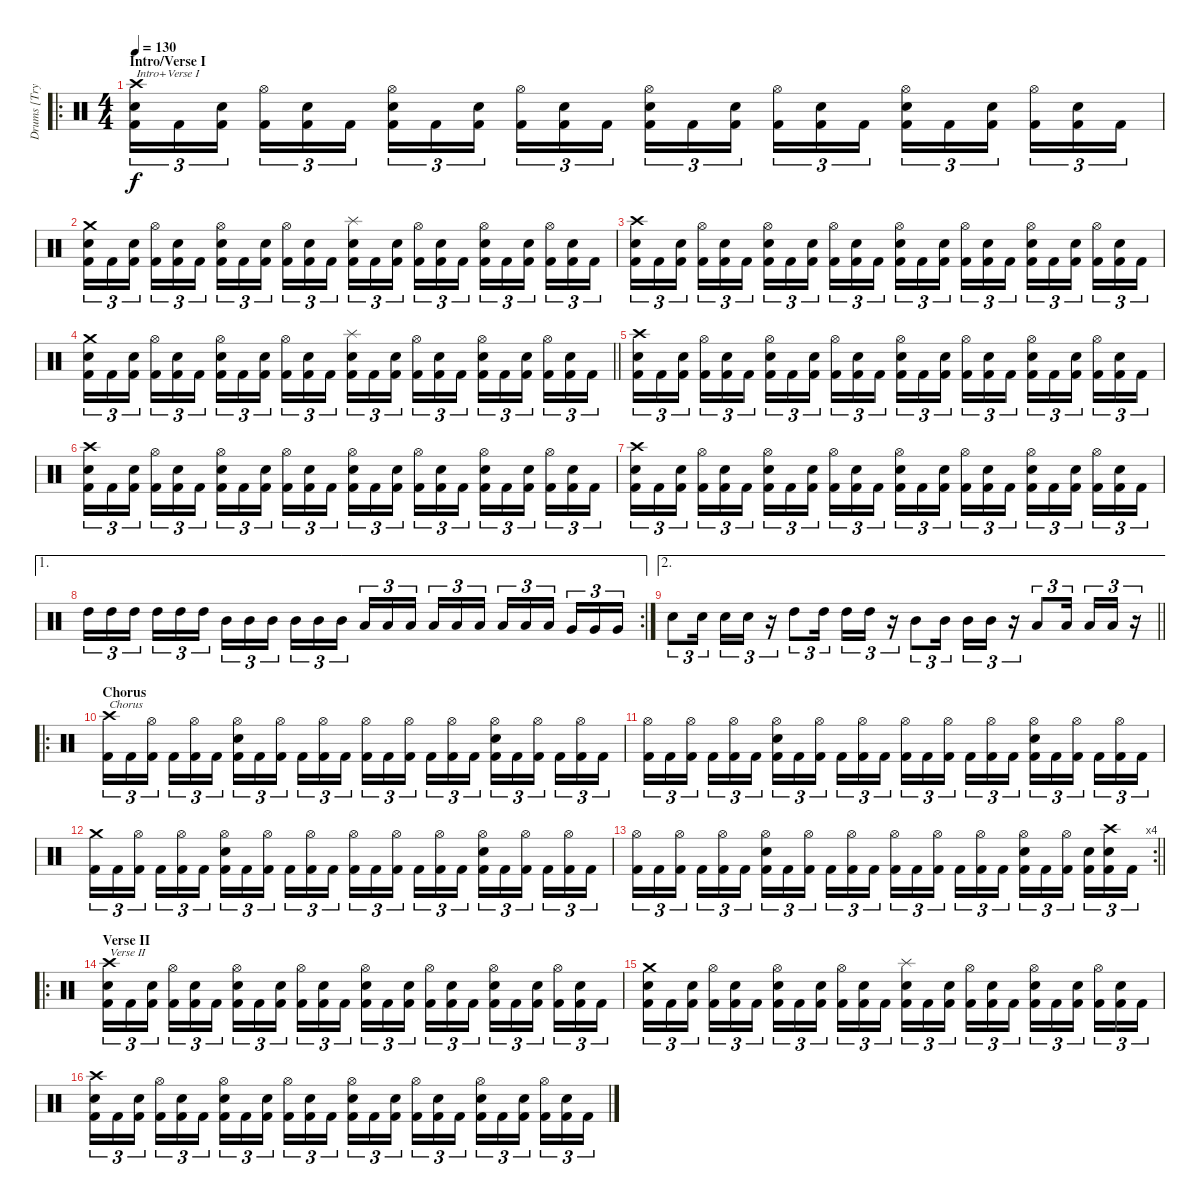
\track ("Drums [Trym]" "Drums [Try") {instrument percussion}
\staff {score}
\articulation defaults
\ro
\ts (4 4)
\section ("" "Intro/Verse I")
\tempo 130
\clef neutral
\ks c
("Crash high (hit)" "Electric Snare (hit)" "Kick (hit) 2").16{tu (3 2) txt "Intro+Verse I" dy f} "Kick (hit) 2".16{tu (3 2)} ("Electric Snare (hit)" "Kick (hit) 2").16{tu (3 2) beam splitsecondary} ("Hi-Hat (open)" "Kick (hit) 2").16{tu (3 2)} ("Electric Snare (hit)" "Kick (hit) 2").16{tu (3 2)} "Kick (hit) 2".16{tu (3 2)} ("Hi-Hat (open)" "Electric Snare (hit)" "Kick (hit) 2").16{tu (3 2)} "Kick (hit) 2".16{tu (3 2)} ("Electric Snare (hit)" "Kick (hit) 2").16{tu (3 2) beam splitsecondary} ("Hi-Hat (open)" "Kick (hit) 2").16{tu (3 2)} ("Electric Snare (hit)" "Kick (hit) 2").16{tu (3 2)} "Kick (hit) 2".16{tu (3 2)} ("Hi-Hat (open)" "Electric Snare (hit)" "Kick (hit) 2").16{tu (3 2)} "Kick (hit) 2".16{tu (3 2)} ("Electric Snare (hit)" "Kick (hit) 2").16{tu (3 2) beam splitsecondary} ("Hi-Hat (open)" "Kick (hit) 2").16{tu (3 2)} ("Electric Snare (hit)" "Kick (hit) 2").16{tu (3 2)} "Kick (hit) 2".16{tu (3 2)} ("Hi-Hat (open)" "Electric Snare (hit)" "Kick (hit) 2").16{tu (3 2)} "Kick (hit) 2".16{tu (3 2)} ("Electric Snare (hit)" "Kick (hit) 2").16{tu (3 2) beam splitsecondary} ("Hi-Hat (open)" "Kick (hit) 2").16{tu (3 2)} ("Electric Snare (hit)" "Kick (hit) 2").16{tu (3 2)} "Kick (hit) 2".16{tu (3 2)} |
("Crash medium (hit)" "Electric Snare (hit)" "Kick (hit) 2").16{tu (3 2)} "Kick (hit) 2".16{tu (3 2)} ("Electric Snare (hit)" "Kick (hit) 2").16{tu (3 2) beam splitsecondary} ("Hi-Hat (open)" "Kick (hit) 2").16{tu (3 2)} ("Electric Snare (hit)" "Kick (hit) 2").16{tu (3 2)} "Kick (hit) 2".16{tu (3 2)} ("Hi-Hat (open)" "Electric Snare (hit)" "Kick (hit) 2").16{tu (3 2)} "Kick (hit) 2".16{tu (3 2)} ("Electric Snare (hit)" "Kick (hit) 2").16{tu (3 2) beam splitsecondary} ("Hi-Hat (open)" "Kick (hit) 2").16{tu (3 2)} ("Electric Snare (hit)" "Kick (hit) 2").16{tu (3 2)} "Kick (hit) 2".16{tu (3 2)} ("Splash (hit)" "Electric Snare (hit)" "Kick (hit) 2").16{tu (3 2)} "Kick (hit) 2".16{tu (3 2)} ("Electric Snare (hit)" "Kick (hit) 2").16{tu (3 2) beam splitsecondary} ("Hi-Hat (open)" "Kick (hit) 2").16{tu (3 2)} ("Electric Snare (hit)" "Kick (hit) 2").16{tu (3 2)} "Kick (hit) 2".16{tu (3 2)} ("Hi-Hat (open)" "Electric Snare (hit)" "Kick (hit) 2").16{tu (3 2)} "Kick (hit) 2".16{tu (3 2)} ("Electric Snare (hit)" "Kick (hit) 2").16{tu (3 2) beam splitsecondary} ("Hi-Hat (open)" "Kick (hit) 2").16{tu (3 2)} ("Electric Snare (hit)" "Kick (hit) 2").16{tu (3 2)} "Kick (hit) 2".16{tu (3 2)} |
("Crash high (hit)" "Electric Snare (hit)" "Kick (hit) 2").16{tu (3 2)} "Kick (hit) 2".16{tu (3 2)} ("Electric Snare (hit)" "Kick (hit) 2").16{tu (3 2) beam splitsecondary} ("Hi-Hat (open)" "Kick (hit) 2").16{tu (3 2)} ("Electric Snare (hit)" "Kick (hit) 2").16{tu (3 2)} "Kick (hit) 2".16{tu (3 2)} ("Hi-Hat (open)" "Electric Snare (hit)" "Kick (hit) 2").16{tu (3 2)} "Kick (hit) 2".16{tu (3 2)} ("Electric Snare (hit)" "Kick (hit) 2").16{tu (3 2) beam splitsecondary} ("Hi-Hat (open)" "Kick (hit) 2").16{tu (3 2)} ("Electric Snare (hit)" "Kick (hit) 2").16{tu (3 2)} "Kick (hit) 2".16{tu (3 2)} ("Hi-Hat (open)" "Electric Snare (hit)" "Kick (hit) 2").16{tu (3 2)} "Kick (hit) 2".16{tu (3 2)} ("Electric Snare (hit)" "Kick (hit) 2").16{tu (3 2) beam splitsecondary} ("Hi-Hat (open)" "Kick (hit) 2").16{tu (3 2)} ("Electric Snare (hit)" "Kick (hit) 2").16{tu (3 2)} "Kick (hit) 2".16{tu (3 2)} ("Hi-Hat (open)" "Electric Snare (hit)" "Kick (hit) 2").16{tu (3 2)} "Kick (hit) 2".16{tu (3 2)} ("Electric Snare (hit)" "Kick (hit) 2").16{tu (3 2) beam splitsecondary} ("Hi-Hat (open)" "Kick (hit) 2").16{tu (3 2)} ("Electric Snare (hit)" "Kick (hit) 2").16{tu (3 2)} "Kick (hit) 2".16{tu (3 2)} |
\barLineRight lightlight
("Crash medium (hit)" "Electric Snare (hit)" "Kick (hit) 2").16{tu (3 2)} "Kick (hit) 2".16{tu (3 2)} ("Electric Snare (hit)" "Kick (hit) 2").16{tu (3 2) beam splitsecondary} ("Hi-Hat (open)" "Kick (hit) 2").16{tu (3 2)} ("Electric Snare (hit)" "Kick (hit) 2").16{tu (3 2)} "Kick (hit) 2".16{tu (3 2)} ("Hi-Hat (open)" "Electric Snare (hit)" "Kick (hit) 2").16{tu (3 2)} "Kick (hit) 2".16{tu (3 2)} ("Electric Snare (hit)" "Kick (hit) 2").16{tu (3 2) beam splitsecondary} ("Hi-Hat (open)" "Kick (hit) 2").16{tu (3 2)} ("Electric Snare (hit)" "Kick (hit) 2").16{tu (3 2)} "Kick (hit) 2".16{tu (3 2)} ("Splash (hit)" "Electric Snare (hit)" "Kick (hit) 2").16{tu (3 2)} "Kick (hit) 2".16{tu (3 2)} ("Electric Snare (hit)" "Kick (hit) 2").16{tu (3 2) beam splitsecondary} ("Hi-Hat (open)" "Kick (hit) 2").16{tu (3 2)} ("Electric Snare (hit)" "Kick (hit) 2").16{tu (3 2)} "Kick (hit) 2".16{tu (3 2)} ("Hi-Hat (open)" "Electric Snare (hit)" "Kick (hit) 2").16{tu (3 2)} "Kick (hit) 2".16{tu (3 2)} ("Electric Snare (hit)" "Kick (hit) 2").16{tu (3 2) beam splitsecondary} ("Hi-Hat (open)" "Kick (hit) 2").16{tu (3 2)} ("Electric Snare (hit)" "Kick (hit) 2").16{tu (3 2)} "Kick (hit) 2".16{tu (3 2)} |
("Crash high (hit)" "Electric Snare (hit)" "Kick (hit) 2").16{tu (3 2)} "Kick (hit) 2".16{tu (3 2)} ("Electric Snare (hit)" "Kick (hit) 2").16{tu (3 2) beam splitsecondary} ("Hi-Hat (open)" "Kick (hit) 2").16{tu (3 2)} ("Electric Snare (hit)" "Kick (hit) 2").16{tu (3 2)} "Kick (hit) 2".16{tu (3 2)} ("Hi-Hat (open)" "Electric Snare (hit)" "Kick (hit) 2").16{tu (3 2)} "Kick (hit) 2".16{tu (3 2)} ("Electric Snare (hit)" "Kick (hit) 2").16{tu (3 2) beam splitsecondary} ("Hi-Hat (open)" "Kick (hit) 2").16{tu (3 2)} ("Electric Snare (hit)" "Kick (hit) 2").16{tu (3 2)} "Kick (hit) 2".16{tu (3 2)} ("Hi-Hat (open)" "Electric Snare (hit)" "Kick (hit) 2").16{tu (3 2)} "Kick (hit) 2".16{tu (3 2)} ("Electric Snare (hit)" "Kick (hit) 2").16{tu (3 2) beam splitsecondary} ("Hi-Hat (open)" "Kick (hit) 2").16{tu (3 2)} ("Electric Snare (hit)" "Kick (hit) 2").16{tu (3 2)} "Kick (hit) 2".16{tu (3 2)} ("Hi-Hat (open)" "Electric Snare (hit)" "Kick (hit) 2").16{tu (3 2)} "Kick (hit) 2".16{tu (3 2)} ("Electric Snare (hit)" "Kick (hit) 2").16{tu (3 2) beam splitsecondary} ("Hi-Hat (open)" "Kick (hit) 2").16{tu (3 2)} ("Electric Snare (hit)" "Kick (hit) 2").16{tu (3 2)} "Kick (hit) 2".16{tu (3 2)} |
("Crash high (hit)" "Electric Snare (hit)" "Kick (hit) 2").16{tu (3 2)} "Kick (hit) 2".16{tu (3 2)} ("Electric Snare (hit)" "Kick (hit) 2").16{tu (3 2) beam splitsecondary} ("Hi-Hat (open)" "Kick (hit) 2").16{tu (3 2)} ("Electric Snare (hit)" "Kick (hit) 2").16{tu (3 2)} "Kick (hit) 2".16{tu (3 2)} ("Hi-Hat (open)" "Electric Snare (hit)" "Kick (hit) 2").16{tu (3 2)} "Kick (hit) 2".16{tu (3 2)} ("Electric Snare (hit)" "Kick (hit) 2").16{tu (3 2) beam splitsecondary} ("Hi-Hat (open)" "Kick (hit) 2").16{tu (3 2)} ("Electric Snare (hit)" "Kick (hit) 2").16{tu (3 2)} "Kick (hit) 2".16{tu (3 2)} ("Hi-Hat (open)" "Electric Snare (hit)" "Kick (hit) 2").16{tu (3 2)} "Kick (hit) 2".16{tu (3 2)} ("Electric Snare (hit)" "Kick (hit) 2").16{tu (3 2) beam splitsecondary} ("Hi-Hat (open)" "Kick (hit) 2").16{tu (3 2)} ("Electric Snare (hit)" "Kick (hit) 2").16{tu (3 2)} "Kick (hit) 2".16{tu (3 2)} ("Hi-Hat (open)" "Electric Snare (hit)" "Kick (hit) 2").16{tu (3 2)} "Kick (hit) 2".16{tu (3 2)} ("Electric Snare (hit)" "Kick (hit) 2").16{tu (3 2) beam splitsecondary} ("Hi-Hat (open)" "Kick (hit) 2").16{tu (3 2)} ("Electric Snare (hit)" "Kick (hit) 2").16{tu (3 2)} "Kick (hit) 2".16{tu (3 2)} |
("Crash high (hit)" "Electric Snare (hit)" "Kick (hit) 2").16{tu (3 2)} "Kick (hit) 2".16{tu (3 2)} ("Electric Snare (hit)" "Kick (hit) 2").16{tu (3 2) beam splitsecondary} ("Hi-Hat (open)" "Kick (hit) 2").16{tu (3 2)} ("Electric Snare (hit)" "Kick (hit) 2").16{tu (3 2)} "Kick (hit) 2".16{tu (3 2)} ("Hi-Hat (open)" "Electric Snare (hit)" "Kick (hit) 2").16{tu (3 2)} "Kick (hit) 2".16{tu (3 2)} ("Electric Snare (hit)" "Kick (hit) 2").16{tu (3 2) beam splitsecondary} ("Hi-Hat (open)" "Kick (hit) 2").16{tu (3 2)} ("Electric Snare (hit)" "Kick (hit) 2").16{tu (3 2)} "Kick (hit) 2".16{tu (3 2)} ("Hi-Hat (open)" "Electric Snare (hit)" "Kick (hit) 2").16{tu (3 2)} "Kick (hit) 2".16{tu (3 2)} ("Electric Snare (hit)" "Kick (hit) 2").16{tu (3 2) beam splitsecondary} ("Hi-Hat (open)" "Kick (hit) 2").16{tu (3 2)} ("Electric Snare (hit)" "Kick (hit) 2").16{tu (3 2)} "Kick (hit) 2".16{tu (3 2)} ("Hi-Hat (open)" "Electric Snare (hit)" "Kick (hit) 2").16{tu (3 2)} "Kick (hit) 2".16{tu (3 2)} ("Electric Snare (hit)" "Kick (hit) 2").16{tu (3 2) beam splitsecondary} ("Hi-Hat (open)" "Kick (hit) 2").16{tu (3 2)} ("Electric Snare (hit)" "Kick (hit) 2").16{tu (3 2)} "Kick (hit) 2".16{tu (3 2)} |
\ae 1
\rc 2 "High Tom (hit)".16{tu (3 2)} "High Tom (hit)".16{tu (3 2)} "High Tom (hit)".16{tu (3 2) beam splitsecondary} "High Tom (hit)".16{tu (3 2)} "High Tom (hit)".16{tu (3 2)} "High Tom (hit)".16{tu (3 2)} "Mid Tom (hit)".16{tu (3 2)} "Mid Tom (hit)".16{tu (3 2)} "Mid Tom (hit)".16{tu (3 2) beam splitsecondary} "Mid Tom (hit)".16{tu (3 2)} "Mid Tom (hit)".16{tu (3 2)} "Mid Tom (hit)".16{tu (3 2)} "Low Tom (hit)".16{tu (3 2)} "Low Tom (hit)".16{tu (3 2)} "Low Tom (hit)".16{tu (3 2) beam splitsecondary} "Low Tom (hit)".16{tu (3 2)} "Low Tom (hit)".16{tu (3 2)} "Low Tom (hit)".16{tu (3 2)} "Low Tom (hit)".16{tu (3 2)} "Low Tom (hit)".16{tu (3 2)} "Low Tom (hit)".16{tu (3 2) beam splitsecondary} "Very Low Tom (hit)".16{tu (3 2)} "Very Low Tom (hit)".16{tu (3 2)} "Very Low Tom (hit)".16{tu (3 2)}
|
\ae 2
\barLineRight lightlight "Electric Snare (hit)".8{tu (3 2)} "Electric Snare (hit)".16{tu (3 2) beam splitsecondary} "Electric Snare (hit)".16{tu (3 2)} "Electric Snare (hit)".16{tu (3 2)}
r.16{tu (3 2)} "High Tom (hit)".8{tu (3 2)} "High Tom (hit)".16{tu (3 2) beam splitsecondary} "High Tom (hit)".16{tu (3 2)} "High Tom (hit)".16{tu (3 2)} r.16{tu (3 2)} "Mid Tom (hit)".8{tu (3 2)} "Mid Tom (hit)".16{tu (3 2) beam splitsecondary} "Mid Tom (hit)".16{tu (3 2)} "Mid Tom (hit)".16{tu (3 2)} r.16{tu (3 2)} "Low Tom (hit)".8{tu (3 2)} "Low Tom (hit)".16{tu (3 2) beam splitsecondary} "Low Tom (hit)".16{tu (3 2)} "Low Tom (hit)".16{tu (3 2)} r.16{tu (3 2)} |
\ro
\section ("" "Chorus")
("Crash high (hit)" "Kick (hit) 2").16{tu (3 2) txt "Chorus"} "Kick (hit) 2".16{tu (3 2)} ("Hi-Hat (open)" "Kick (hit) 2").16{tu (3 2) beam splitsecondary} "Kick (hit) 2".16{tu (3 2)} ("Hi-Hat (open)" "Kick (hit) 2").16{tu (3 2)} "Kick (hit) 2".16{tu (3 2)} ("Hi-Hat (open)" "Electric Snare (hit)" "Kick (hit) 2").16{tu (3 2)} "Kick (hit) 2".16{tu (3 2)} ("Hi-Hat (open)" "Kick (hit) 2").16{tu (3 2) beam splitsecondary} "Kick (hit) 2".16{tu (3 2)} ("Hi-Hat (open)" "Kick (hit) 2").16{tu (3 2)} "Kick (hit) 2".16{tu (3 2)} ("Hi-Hat (open)" "Kick (hit) 2").16{tu (3 2)} "Kick (hit) 2".16{tu (3 2)} ("Hi-Hat (open)" "Kick (hit) 2").16{tu (3 2) beam splitsecondary} "Kick (hit) 2".16{tu (3 2)} ("Hi-Hat (open)" "Kick (hit) 2").16{tu (3 2)} "Kick (hit) 2".16{tu (3 2)} ("Hi-Hat (open)" "Electric Snare (hit)" "Kick (hit) 2").16{tu (3 2)} "Kick (hit) 2".16{tu (3 2)} ("Hi-Hat (open)" "Kick (hit) 2").16{tu (3 2) beam splitsecondary} "Kick (hit) 2".16{tu (3 2)} ("Hi-Hat (open)" "Kick (hit) 2").16{tu (3 2)} "Kick (hit) 2".16{tu (3 2)} |
("Hi-Hat (open)" "Kick (hit) 2").16{tu (3 2)} "Kick (hit) 2".16{tu (3 2)} ("Hi-Hat (open)" "Kick (hit) 2").16{tu (3 2) beam splitsecondary} "Kick (hit) 2".16{tu (3 2)} ("Hi-Hat (open)" "Kick (hit) 2").16{tu (3 2)} "Kick (hit) 2".16{tu (3 2)} ("Hi-Hat (open)" "Electric Snare (hit)" "Kick (hit) 2").16{tu (3 2)} "Kick (hit) 2".16{tu (3 2)} ("Hi-Hat (open)" "Kick (hit) 2").16{tu (3 2) beam splitsecondary} "Kick (hit) 2".16{tu (3 2)} ("Hi-Hat (open)" "Kick (hit) 2").16{tu (3 2)} "Kick (hit) 2".16{tu (3 2)} ("Hi-Hat (open)" "Kick (hit) 2").16{tu (3 2)} "Kick (hit) 2".16{tu (3 2)} ("Hi-Hat (open)" "Kick (hit) 2").16{tu (3 2) beam splitsecondary} "Kick (hit) 2".16{tu (3 2)} ("Hi-Hat (open)" "Kick (hit) 2").16{tu (3 2)} "Kick (hit) 2".16{tu (3 2)} ("Hi-Hat (open)" "Electric Snare (hit)" "Kick (hit) 2").16{tu (3 2)} "Kick (hit) 2".16{tu (3 2)} ("Hi-Hat (open)" "Kick (hit) 2").16{tu (3 2) beam splitsecondary} "Kick (hit) 2".16{tu (3 2)} ("Hi-Hat (open)" "Kick (hit) 2").16{tu (3 2)} "Kick (hit) 2".16{tu (3 2)} |
("Crash medium (hit)" "Kick (hit) 2").16{tu (3 2)} "Kick (hit) 2".16{tu (3 2)} ("Hi-Hat (open)" "Kick (hit) 2").16{tu (3 2) beam splitsecondary} "Kick (hit) 2".16{tu (3 2)} ("Hi-Hat (open)" "Kick (hit) 2").16{tu (3 2)} "Kick (hit) 2".16{tu (3 2)} ("Hi-Hat (open)" "Electric Snare (hit)" "Kick (hit) 2").16{tu (3 2)} "Kick (hit) 2".16{tu (3 2)} ("Hi-Hat (open)" "Kick (hit) 2").16{tu (3 2) beam splitsecondary} "Kick (hit) 2".16{tu (3 2)} ("Hi-Hat (open)" "Kick (hit) 2").16{tu (3 2)} "Kick (hit) 2".16{tu (3 2)} ("Hi-Hat (open)" "Kick (hit) 2").16{tu (3 2)} "Kick (hit) 2".16{tu (3 2)} ("Hi-Hat (open)" "Kick (hit) 2").16{tu (3 2) beam splitsecondary} "Kick (hit) 2".16{tu (3 2)} ("Hi-Hat (open)" "Kick (hit) 2").16{tu (3 2)} "Kick (hit) 2".16{tu (3 2)} ("Hi-Hat (open)" "Electric Snare (hit)" "Kick (hit) 2").16{tu (3 2)} "Kick (hit) 2".16{tu (3 2)} ("Hi-Hat (open)" "Kick (hit) 2").16{tu (3 2) beam splitsecondary} "Kick (hit) 2".16{tu (3 2)} ("Hi-Hat (open)" "Kick (hit) 2").16{tu (3 2)} "Kick (hit) 2".16{tu (3 2)} |
\rc 4
\barLineRight lightlight
("Hi-Hat (open)" "Kick (hit) 2").16{tu (3 2)} "Kick (hit) 2".16{tu (3 2)} ("Hi-Hat (open)" "Kick (hit) 2").16{tu (3 2) beam splitsecondary} "Kick (hit) 2".16{tu (3 2)} ("Hi-Hat (open)" "Kick (hit) 2").16{tu (3 2)} "Kick (hit) 2".16{tu (3 2)} ("Hi-Hat (open)" "Electric Snare (hit)" "Kick (hit) 2").16{tu (3 2)} "Kick (hit) 2".16{tu (3 2)} ("Hi-Hat (open)" "Kick (hit) 2").16{tu (3 2) beam splitsecondary} "Kick (hit) 2".16{tu (3 2)} ("Hi-Hat (open)" "Kick (hit) 2").16{tu (3 2)} "Kick (hit) 2".16{tu (3 2)} ("Hi-Hat (open)" "Kick (hit) 2").16{tu (3 2)} "Kick (hit) 2".16{tu (3 2)} ("Hi-Hat (open)" "Kick (hit) 2").16{tu (3 2) beam splitsecondary} "Kick (hit) 2".16{tu (3 2)} ("Hi-Hat (open)" "Kick (hit) 2").16{tu (3 2)} "Kick (hit) 2".16{tu (3 2)} ("Hi-Hat (open)" "Electric Snare (hit)" "Kick (hit) 2").16{tu (3 2)} "Kick (hit) 2".16{tu (3 2)} ("Hi-Hat (open)" "Kick (hit) 2").16{tu (3 2) beam splitsecondary} ("Electric Snare (hit)" "Kick (hit) 2").16{tu (3 2)} ("Crash high (hit)" "Electric Snare (hit)" "Kick (hit) 2").16{tu (3 2)} "Kick (hit) 2".16{tu (3 2)} |
\ro
\section ("" "Verse II")
("Crash high (hit)" "Electric Snare (hit)" "Kick (hit) 2").16{tu (3 2) txt "Verse II"} "Kick (hit) 2".16{tu (3 2)} ("Electric Snare (hit)" "Kick (hit) 2").16{tu (3 2) beam splitsecondary} ("Hi-Hat (open)" "Kick (hit) 2").16{tu (3 2)} ("Electric Snare (hit)" "Kick (hit) 2").16{tu (3 2)} "Kick (hit) 2".16{tu (3 2)} ("Hi-Hat (open)" "Electric Snare (hit)" "Kick (hit) 2").16{tu (3 2)} "Kick (hit) 2".16{tu (3 2)} ("Electric Snare (hit)" "Kick (hit) 2").16{tu (3 2) beam splitsecondary} ("Hi-Hat (open)" "Kick (hit) 2").16{tu (3 2)} ("Electric Snare (hit)" "Kick (hit) 2").16{tu (3 2)} "Kick (hit) 2".16{tu (3 2)} ("Hi-Hat (open)" "Electric Snare (hit)" "Kick (hit) 2").16{tu (3 2)} "Kick (hit) 2".16{tu (3 2)} ("Electric Snare (hit)" "Kick (hit) 2").16{tu (3 2) beam splitsecondary} ("Hi-Hat (open)" "Kick (hit) 2").16{tu (3 2)} ("Electric Snare (hit)" "Kick (hit) 2").16{tu (3 2)} "Kick (hit) 2".16{tu (3 2)} ("Hi-Hat (open)" "Electric Snare (hit)" "Kick (hit) 2").16{tu (3 2)} "Kick (hit) 2".16{tu (3 2)} ("Electric Snare (hit)" "Kick (hit) 2").16{tu (3 2) beam splitsecondary} ("Hi-Hat (open)" "Kick (hit) 2").16{tu (3 2)} ("Electric Snare (hit)" "Kick (hit) 2").16{tu (3 2)} "Kick (hit) 2".16{tu (3 2)} |
("Crash medium (hit)" "Electric Snare (hit)" "Kick (hit) 2").16{tu (3 2)} "Kick (hit) 2".16{tu (3 2)} ("Electric Snare (hit)" "Kick (hit) 2").16{tu (3 2) beam splitsecondary} ("Hi-Hat (open)" "Kick (hit) 2").16{tu (3 2)} ("Electric Snare (hit)" "Kick (hit) 2").16{tu (3 2)} "Kick (hit) 2".16{tu (3 2)} ("Hi-Hat (open)" "Electric Snare (hit)" "Kick (hit) 2").16{tu (3 2)} "Kick (hit) 2".16{tu (3 2)} ("Electric Snare (hit)" "Kick (hit) 2").16{tu (3 2) beam splitsecondary} ("Hi-Hat (open)" "Kick (hit) 2").16{tu (3 2)} ("Electric Snare (hit)" "Kick (hit) 2").16{tu (3 2)} "Kick (hit) 2".16{tu (3 2)} ("Splash (hit)" "Electric Snare (hit)" "Kick (hit) 2").16{tu (3 2)} "Kick (hit) 2".16{tu (3 2)} ("Electric Snare (hit)" "Kick (hit) 2").16{tu (3 2) beam splitsecondary} ("Hi-Hat (open)" "Kick (hit) 2").16{tu (3 2)} ("Electric Snare (hit)" "Kick (hit) 2").16{tu (3 2)} "Kick (hit) 2".16{tu (3 2)} ("Hi-Hat (open)" "Electric Snare (hit)" "Kick (hit) 2").16{tu (3 2)} "Kick (hit) 2".16{tu (3 2)} ("Electric Snare (hit)" "Kick (hit) 2").16{tu (3 2) beam splitsecondary} ("Hi-Hat (open)" "Kick (hit) 2").16{tu (3 2)} ("Electric Snare (hit)" "Kick (hit) 2").16{tu (3 2)} "Kick (hit) 2".16{tu (3 2)} |
("Crash high (hit)" "Electric Snare (hit)" "Kick (hit) 2").16{tu (3 2)} "Kick (hit) 2".16{tu (3 2)} ("Electric Snare (hit)" "Kick (hit) 2").16{tu (3 2) beam splitsecondary} ("Hi-Hat (open)" "Kick (hit) 2").16{tu (3 2)} ("Electric Snare (hit)" "Kick (hit) 2").16{tu (3 2)} "Kick (hit) 2".16{tu (3 2)} ("Hi-Hat (open)" "Electric Snare (hit)" "Kick (hit) 2").16{tu (3 2)} "Kick (hit) 2".16{tu (3 2)} ("Electric Snare (hit)" "Kick (hit) 2").16{tu (3 2) beam splitsecondary} ("Hi-Hat (open)" "Kick (hit) 2").16{tu (3 2)} ("Electric Snare (hit)" "Kick (hit) 2").16{tu (3 2)} "Kick (hit) 2".16{tu (3 2)} ("Hi-Hat (open)" "Electric Snare (hit)" "Kick (hit) 2").16{tu (3 2)} "Kick (hit) 2".16{tu (3 2)} ("Electric Snare (hit)" "Kick (hit) 2").16{tu (3 2) beam splitsecondary} ("Hi-Hat (open)" "Kick (hit) 2").16{tu (3 2)} ("Electric Snare (hit)" "Kick (hit) 2").16{tu (3 2)} "Kick (hit) 2".16{tu (3 2)} ("Hi-Hat (open)" "Electric Snare (hit)" "Kick (hit) 2").16{tu (3 2)} "Kick (hit) 2".16{tu (3 2)} ("Electric Snare (hit)" "Kick (hit) 2").16{tu (3 2) beam splitsecondary} ("Hi-Hat (open)" "Kick (hit) 2").16{tu (3 2)} ("Electric Snare (hit)" "Kick (hit) 2").16{tu (3 2)} "Kick (hit) 2".16{tu (3 2)}
